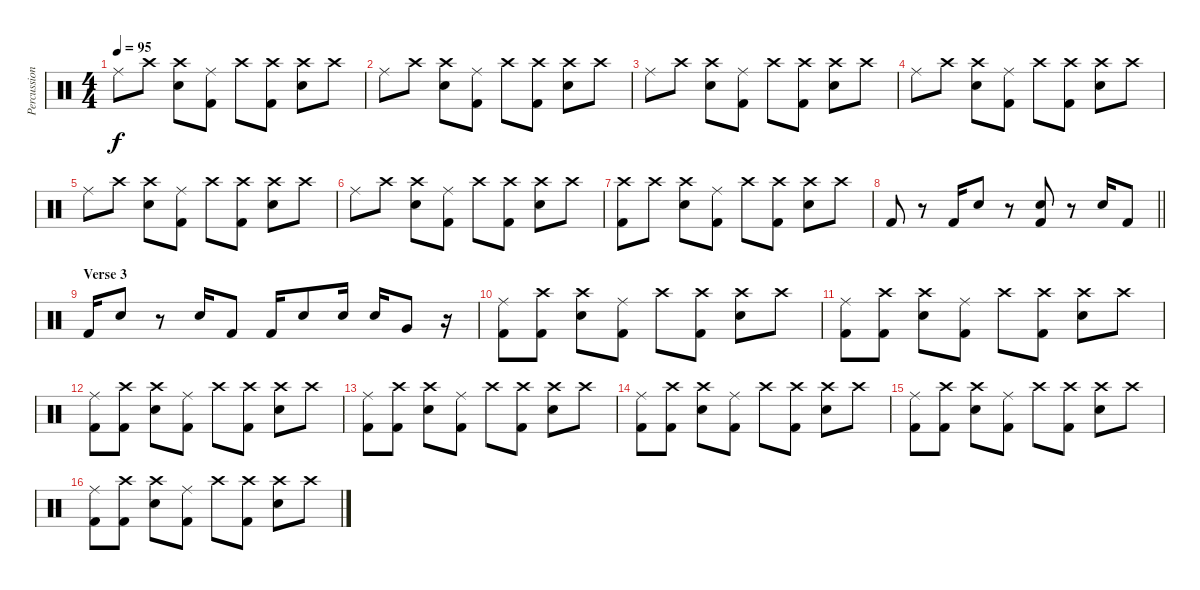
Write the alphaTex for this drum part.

\track ("Percussion" "Percussion") {instrument percussion}
\staff {score}
\articulation defaults
\ts (4 4)
\tempo 95
\clef neutral
\ks c "Ride (middle)".8{dy f} "Crash high (hit)".8
("Crash high (hit)" "Snare (hit) 2").8 ("Ride (middle)" "Kick (hit) 2").8 "Crash high (hit)".8 ("Crash high (hit)" "Kick (hit) 2").8 ("Crash high (hit)" "Snare (hit) 2").8 "Crash high (hit)".8 |
"Ride (middle)".8 "Crash high (hit)".8 ("Crash high (hit)" "Snare (hit) 2").8 ("Ride (middle)" "Kick (hit) 2").8 "Crash high (hit)".8 ("Crash high (hit)" "Kick (hit) 2").8 ("Crash high (hit)" "Snare (hit) 2").8 "Crash high (hit)".8 |
"Ride (middle)".8 "Crash high (hit)".8 ("Crash high (hit)" "Snare (hit) 2").8 ("Ride (middle)" "Kick (hit) 2").8 "Crash high (hit)".8 ("Crash high (hit)" "Kick (hit) 2").8 ("Crash high (hit)" "Snare (hit) 2").8 "Crash high (hit)".8 |
"Ride (middle)".8 "Crash high (hit)".8 ("Crash high (hit)" "Snare (hit) 2").8 ("Ride (middle)" "Kick (hit) 2").8 "Crash high (hit)".8 ("Crash high (hit)" "Kick (hit) 2").8 ("Crash high (hit)" "Snare (hit) 2").8 "Crash high (hit)".8 |
"Ride (middle)".8 "Crash high (hit)".8 ("Crash high (hit)" "Snare (hit) 2").8 ("Ride (middle)" "Kick (hit) 2").8 "Crash high (hit)".8 ("Crash high (hit)" "Kick (hit) 2").8 ("Crash high (hit)" "Snare (hit) 2").8 "Crash high (hit)".8 |
"Ride (middle)".8 "Crash high (hit)".8 ("Crash high (hit)" "Snare (hit) 2").8 ("Ride (middle)" "Kick (hit) 2").8 "Crash high (hit)".8 ("Crash high (hit)" "Kick (hit) 2").8 ("Crash high (hit)" "Snare (hit) 2").8 "Crash high (hit)".8 |
("Crash high (hit)" "Kick (hit) 2").8 "Crash high (hit)".8 ("Crash high (hit)" "Snare (hit) 2").8 ("Ride (middle)" "Kick (hit) 2").8 "Crash high (hit)".8 ("Crash high (hit)" "Kick (hit) 2").8 ("Crash high (hit)" "Snare (hit) 2").8 "Crash high (hit)".8 |
\barLineRight lightlight "Kick (hit) 2".8
r.8 "Kick (hit) 2".16 "Snare (hit) 2".8 r.8 ("Snare (hit) 2" "Kick (hit) 2").8 r.8 "Snare (hit) 2".16 "Kick (hit) 2".8 |
\section ("" "Verse 3")
"Kick (hit) 2".16 "Snare (hit) 2".8 r.8 "Snare (hit) 2".16 "Kick (hit) 2".8 "Kick (hit) 2".16 "Snare (hit) 2".8 "Snare (hit) 2".16 "Snare (hit) 2".16 "Very Low Tom (hit)".8 r.16 |
("Ride (middle)" "Kick (hit) 2").8 ("Crash high (hit)" "Kick (hit) 2").8 ("Crash high (hit)" "Snare (hit) 2").8 ("Ride (middle)" "Kick (hit) 2").8 "Crash high (hit)".8 ("Crash high (hit)" "Kick (hit) 2").8 ("Crash high (hit)" "Snare (hit) 2").8 "Crash high (hit)".8 |
("Ride (middle)" "Kick (hit) 2").8 ("Crash high (hit)" "Kick (hit) 2").8 ("Crash high (hit)" "Snare (hit) 2").8 ("Ride (middle)" "Kick (hit) 2").8 "Crash high (hit)".8 ("Crash high (hit)" "Kick (hit) 2").8 ("Crash high (hit)" "Snare (hit) 2").8 "Crash high (hit)".8 |
("Ride (middle)" "Kick (hit) 2").8 ("Crash high (hit)" "Kick (hit) 2").8 ("Crash high (hit)" "Snare (hit) 2").8 ("Ride (middle)" "Kick (hit) 2").8 "Crash high (hit)".8 ("Crash high (hit)" "Kick (hit) 2").8 ("Crash high (hit)" "Snare (hit) 2").8 "Crash high (hit)".8 |
("Ride (middle)" "Kick (hit) 2").8 ("Crash high (hit)" "Kick (hit) 2").8 ("Crash high (hit)" "Snare (hit) 2").8 ("Ride (middle)" "Kick (hit) 2").8 "Crash high (hit)".8 ("Crash high (hit)" "Kick (hit) 2").8 ("Crash high (hit)" "Snare (hit) 2").8 "Crash high (hit)".8 |
("Ride (middle)" "Kick (hit) 2").8 ("Crash high (hit)" "Kick (hit) 2").8 ("Crash high (hit)" "Snare (hit) 2").8 ("Ride (middle)" "Kick (hit) 2").8 "Crash high (hit)".8 ("Crash high (hit)" "Kick (hit) 2").8 ("Crash high (hit)" "Snare (hit) 2").8 "Crash high (hit)".8 |
("Ride (middle)" "Kick (hit) 2").8 ("Crash high (hit)" "Kick (hit) 2").8 ("Crash high (hit)" "Snare (hit) 2").8 ("Ride (middle)" "Kick (hit) 2").8 "Crash high (hit)".8 ("Crash high (hit)" "Kick (hit) 2").8 ("Crash high (hit)" "Snare (hit) 2").8 "Crash high (hit)".8 |
("Ride (middle)" "Kick (hit) 2").8 ("Crash high (hit)" "Kick (hit) 2").8 ("Crash high (hit)" "Snare (hit) 2").8 ("Ride (middle)" "Kick (hit) 2").8 "Crash high (hit)".8 ("Crash high (hit)" "Kick (hit) 2").8 ("Crash high (hit)" "Snare (hit) 2").8 "Crash high (hit)".8
